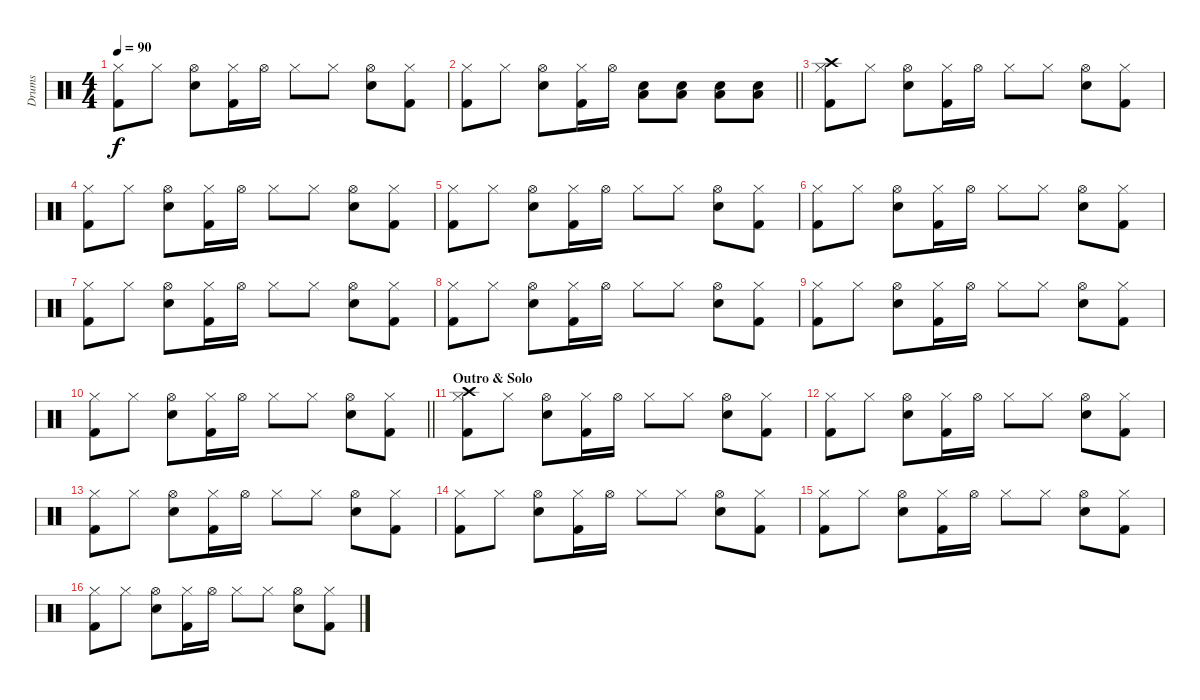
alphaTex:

\track ("Drums" "Drums") {instrument percussion}
\staff {score}
\articulation defaults
\ts (4 4)
\tempo 90
\clef neutral
\ks c
("Kick (hit) 2" "Hi-Hat (closed)").8{dy f} "Hi-Hat (closed)".8 ("Snare (hit) 2" "Hi-Hat (open)").8 ("Kick (hit) 2" "Hi-Hat (closed)").16 "Hi-Hat (open)".16 "Hi-Hat (closed)".8 "Hi-Hat (closed)".8 ("Snare (hit) 2" "Hi-Hat (open)").8 ("Kick (hit) 2" "Hi-Hat (closed)").8 |
\barLineRight lightlight
("Kick (hit) 2" "Hi-Hat (closed)").8 "Hi-Hat (closed)".8 ("Snare (hit) 2" "Hi-Hat (open)").8 ("Kick (hit) 2" "Hi-Hat (closed)").16 "Hi-Hat (open)".16 ("Low Tom (hit)" "Snare (hit) 2").8 ("Low Tom (hit)" "Snare (hit) 2").8 ("Low Tom (hit)" "Snare (hit) 2").8 ("Low Tom (hit)" "Snare (hit) 2").8 |
("Crash high (hit)" "Kick (hit) 2" "Hi-Hat (closed)").8 "Hi-Hat (closed)".8 ("Snare (hit) 2" "Hi-Hat (open)").8 ("Kick (hit) 2" "Hi-Hat (closed)").16 "Hi-Hat (open)".16 "Hi-Hat (closed)".8 "Hi-Hat (closed)".8 ("Snare (hit) 2" "Hi-Hat (open)").8 ("Kick (hit) 2" "Hi-Hat (closed)").8 |
("Kick (hit) 2" "Hi-Hat (closed)").8 "Hi-Hat (closed)".8 ("Snare (hit) 2" "Hi-Hat (open)").8 ("Kick (hit) 2" "Hi-Hat (closed)").16 "Hi-Hat (open)".16 "Hi-Hat (closed)".8 "Hi-Hat (closed)".8 ("Snare (hit) 2" "Hi-Hat (open)").8 ("Kick (hit) 2" "Hi-Hat (closed)").8 |
("Kick (hit) 2" "Hi-Hat (closed)").8 "Hi-Hat (closed)".8 ("Snare (hit) 2" "Hi-Hat (open)").8 ("Kick (hit) 2" "Hi-Hat (closed)").16 "Hi-Hat (open)".16 "Hi-Hat (closed)".8 "Hi-Hat (closed)".8 ("Snare (hit) 2" "Hi-Hat (open)").8 ("Kick (hit) 2" "Hi-Hat (closed)").8 |
("Kick (hit) 2" "Hi-Hat (closed)").8 "Hi-Hat (closed)".8 ("Snare (hit) 2" "Hi-Hat (open)").8 ("Kick (hit) 2" "Hi-Hat (closed)").16 "Hi-Hat (open)".16 "Hi-Hat (closed)".8 "Hi-Hat (closed)".8 ("Snare (hit) 2" "Hi-Hat (open)").8 ("Kick (hit) 2" "Hi-Hat (closed)").8 |
("Kick (hit) 2" "Hi-Hat (closed)").8 "Hi-Hat (closed)".8 ("Snare (hit) 2" "Hi-Hat (open)").8 ("Kick (hit) 2" "Hi-Hat (closed)").16 "Hi-Hat (open)".16 "Hi-Hat (closed)".8 "Hi-Hat (closed)".8 ("Snare (hit) 2" "Hi-Hat (open)").8 ("Kick (hit) 2" "Hi-Hat (closed)").8 |
("Kick (hit) 2" "Hi-Hat (closed)").8 "Hi-Hat (closed)".8 ("Snare (hit) 2" "Hi-Hat (open)").8 ("Kick (hit) 2" "Hi-Hat (closed)").16 "Hi-Hat (open)".16 "Hi-Hat (closed)".8 "Hi-Hat (closed)".8 ("Snare (hit) 2" "Hi-Hat (open)").8 ("Kick (hit) 2" "Hi-Hat (closed)").8 |
("Kick (hit) 2" "Hi-Hat (closed)").8 "Hi-Hat (closed)".8 ("Snare (hit) 2" "Hi-Hat (open)").8 ("Kick (hit) 2" "Hi-Hat (closed)").16 "Hi-Hat (open)".16 "Hi-Hat (closed)".8 "Hi-Hat (closed)".8 ("Snare (hit) 2" "Hi-Hat (open)").8 ("Kick (hit) 2" "Hi-Hat (closed)").8 |
\barLineRight lightlight
("Kick (hit) 2" "Hi-Hat (closed)").8 "Hi-Hat (closed)".8 ("Snare (hit) 2" "Hi-Hat (open)").8 ("Kick (hit) 2" "Hi-Hat (closed)").16 "Hi-Hat (open)".16 "Hi-Hat (closed)".8 "Hi-Hat (closed)".8 ("Snare (hit) 2" "Hi-Hat (open)").8 ("Kick (hit) 2" "Hi-Hat (closed)").8 |
\section ("" "Outro & Solo")
("Crash high (hit)" "Kick (hit) 2" "Hi-Hat (closed)").8 "Hi-Hat (closed)".8 ("Snare (hit) 2" "Hi-Hat (open)").8 ("Kick (hit) 2" "Hi-Hat (closed)").16 "Hi-Hat (open)".16 "Hi-Hat (closed)".8 "Hi-Hat (closed)".8 ("Snare (hit) 2" "Hi-Hat (open)").8 ("Kick (hit) 2" "Hi-Hat (closed)").8 |
("Kick (hit) 2" "Hi-Hat (closed)").8 "Hi-Hat (closed)".8 ("Snare (hit) 2" "Hi-Hat (open)").8 ("Kick (hit) 2" "Hi-Hat (closed)").16 "Hi-Hat (open)".16 "Hi-Hat (closed)".8 "Hi-Hat (closed)".8 ("Snare (hit) 2" "Hi-Hat (open)").8 ("Kick (hit) 2" "Hi-Hat (closed)").8 |
("Kick (hit) 2" "Hi-Hat (closed)").8 "Hi-Hat (closed)".8 ("Snare (hit) 2" "Hi-Hat (open)").8 ("Kick (hit) 2" "Hi-Hat (closed)").16 "Hi-Hat (open)".16 "Hi-Hat (closed)".8 "Hi-Hat (closed)".8 ("Snare (hit) 2" "Hi-Hat (open)").8 ("Kick (hit) 2" "Hi-Hat (closed)").8 |
("Kick (hit) 2" "Hi-Hat (closed)").8 "Hi-Hat (closed)".8 ("Snare (hit) 2" "Hi-Hat (open)").8 ("Kick (hit) 2" "Hi-Hat (closed)").16 "Hi-Hat (open)".16 "Hi-Hat (closed)".8 "Hi-Hat (closed)".8 ("Snare (hit) 2" "Hi-Hat (open)").8 ("Kick (hit) 2" "Hi-Hat (closed)").8 |
("Kick (hit) 2" "Hi-Hat (closed)").8 "Hi-Hat (closed)".8 ("Snare (hit) 2" "Hi-Hat (open)").8 ("Kick (hit) 2" "Hi-Hat (closed)").16 "Hi-Hat (open)".16 "Hi-Hat (closed)".8 "Hi-Hat (closed)".8 ("Snare (hit) 2" "Hi-Hat (open)").8 ("Kick (hit) 2" "Hi-Hat (closed)").8 |
("Kick (hit) 2" "Hi-Hat (closed)").8 "Hi-Hat (closed)".8 ("Snare (hit) 2" "Hi-Hat (open)").8 ("Kick (hit) 2" "Hi-Hat (closed)").16 "Hi-Hat (open)".16 "Hi-Hat (closed)".8 "Hi-Hat (closed)".8 ("Snare (hit) 2" "Hi-Hat (open)").8 ("Kick (hit) 2" "Hi-Hat (closed)").8
